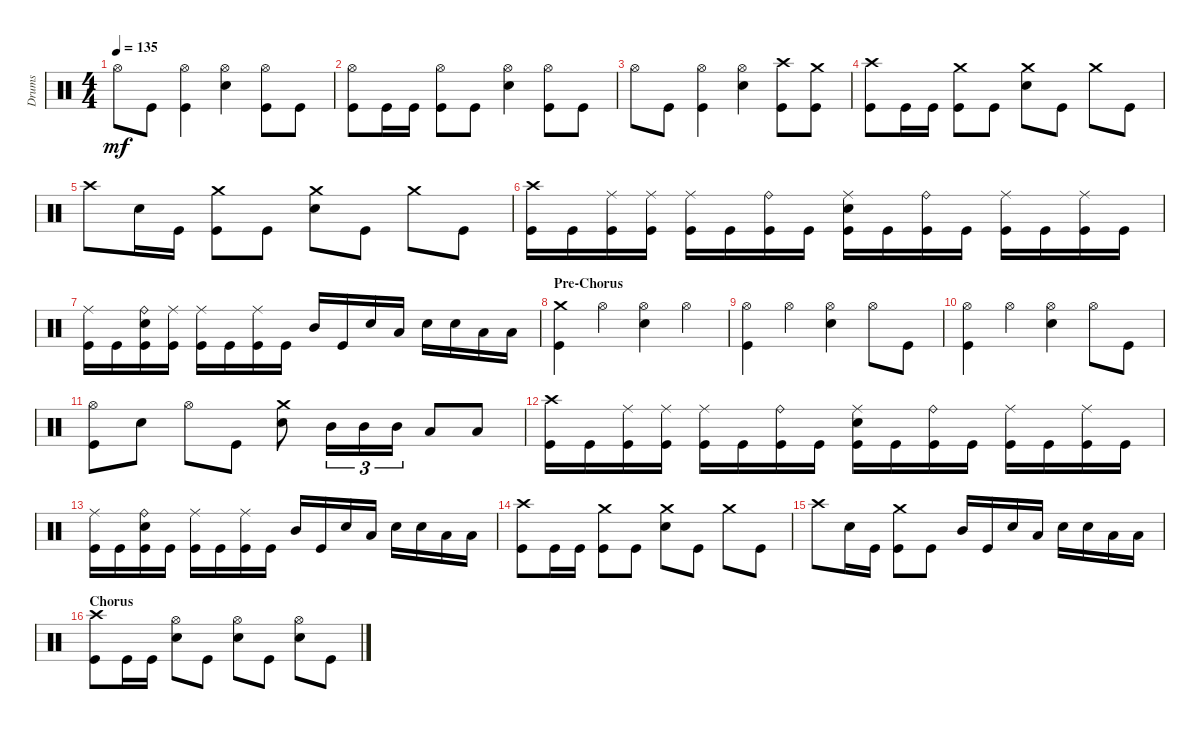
\track ("Drums" "Drums") {instrument percussion}
\staff {score}
\articulation defaults
\ts (4 4)
\tempo 135
\clef neutral
\ks aminor "Hi-Hat (open)".8{dy mf} "Kick (hit)".8
("Kick (hit)" "Hi-Hat (open)").4 ("Hi-Hat (open)" "Snare (hit) 2").4 ("Hi-Hat (open)" "Kick (hit)").8 "Kick (hit)".8 |
("Hi-Hat (open)" "Kick (hit)").8 "Kick (hit)".16 "Kick (hit)".16 ("Kick (hit)" "Hi-Hat (open)").8 "Kick (hit)".8 ("Hi-Hat (open)" "Snare (hit) 2").4 ("Hi-Hat (open)" "Kick (hit)").8 "Kick (hit)".8 |
"Hi-Hat (open)".8 "Kick (hit)".8 ("Kick (hit)" "Hi-Hat (open)").4 ("Hi-Hat (open)" "Snare (hit) 2").4 ("Kick (hit)" "Crash high (hit)").8 ("Kick (hit)" "Crash medium (hit)").8 |
("Crash high (hit)" "Kick (hit)").8 "Kick (hit)".16 "Kick (hit)".16 ("Kick (hit)" "Crash medium (hit)").8 "Kick (hit)".8 ("Snare (hit) 2" "Crash medium (hit)").8 "Kick (hit)".8 "Crash medium (hit)".8 "Kick (hit)".8 |
"Crash high (hit)".8 "Snare (hit) 2".16 "Kick (hit)".16 ("Crash medium (hit)" "Kick (hit)").8 "Kick (hit)".8 ("Crash medium (hit)" "Snare (hit) 2").8 "Kick (hit)".8 "Crash medium (hit)".8 "Kick (hit)".8 |
("Kick (hit)" "Crash high (hit)").16 "Kick (hit)".16 ("Kick (hit)" "Ride (middle)").16 ("Kick (hit)" "Ride (middle)").16 ("Ride (middle)" "Kick (hit)").16 "Kick (hit)".16 ("Kick (hit)" "Ride (bell)").16 "Kick (hit)".16 ("Ride (middle)" "Kick (hit)" "Snare (hit) 2").16 "Kick (hit)".16 ("Kick (hit)" "Ride (bell)").16 "Kick (hit)".16 ("Ride (middle)" "Kick (hit)").16 "Kick (hit)".16 ("Kick (hit)" "Ride (middle)").16 "Kick (hit)".16 |
("Ride (middle)" "Kick (hit)").16 "Kick (hit)".16 ("Snare (hit) 2" "Kick (hit)" "Ride (bell)").16 ("Ride (middle)" "Kick (hit)").16 ("Kick (hit)" "Ride (middle)").16 "Kick (hit)".16 ("Ride (middle)" "Kick (hit)").16 "Kick (hit)".16 "Mid Tom (hit)".16 "Kick (hit)".16 "Snare (hit) 2".16 "Low Tom (hit)".16 "Snare (hit) 2".16 "Snare (hit) 2".16 "Low Tom (hit)".16 "Low Tom (hit)".16 |
\section ("" "Pre-Chorus")
("Crash medium (hit)" "Kick (hit)").4 "Hi-Hat (open)".4 ("Snare (hit) 2" "Hi-Hat (open)").4 "Hi-Hat (open)".4 |
("Hi-Hat (open)" "Kick (hit)").4 "Hi-Hat (open)".4 ("Hi-Hat (open)" "Snare (hit) 2").4 "Hi-Hat (open)".8 "Kick (hit)".8 |
("Kick (hit)" "Hi-Hat (open)").4 "Hi-Hat (open)".4 ("Snare (hit) 2" "Hi-Hat (open)").4 "Hi-Hat (open)".8 "Kick (hit)".8 |
("Kick (hit)" "Hi-Hat (open)").8 "Snare (hit) 2".8 "Hi-Hat (open)".8 "Kick (hit)".8 ("Snare (hit) 2" "Crash medium (hit)").8 "Mid Tom (hit)".16{tu (3 2)} "Mid Tom (hit)".16{tu (3 2)} "Mid Tom (hit)".16{tu (3 2)} "Low Tom (hit)".8 "Low Floor Tom (hit)".8 |
("Kick (hit)" "Crash high (hit)").16 "Kick (hit)".16 ("Kick (hit)" "Ride (middle)").16 ("Kick (hit)" "Ride (middle)").16 ("Ride (middle)" "Kick (hit)").16 "Kick (hit)".16 ("Kick (hit)" "Ride (bell)").16 "Kick (hit)".16 ("Ride (middle)" "Snare (hit) 2" "Kick (hit)").16 "Kick (hit)".16 ("Kick (hit)" "Ride (bell)").16 "Kick (hit)".16 ("Ride (middle)" "Kick (hit)").16 "Kick (hit)".16 ("Kick (hit)" "Ride (middle)").16 "Kick (hit)".16 |
("Ride (middle)" "Kick (hit)").16 "Kick (hit)".16 ("Kick (hit)" "Snare (hit) 2" "Ride (bell)").16 "Kick (hit)".16 ("Ride (middle)" "Kick (hit)").16 "Kick (hit)".16 ("Ride (middle)" "Kick (hit)").16 "Kick (hit)".16 "Mid Tom (hit)".16 "Kick (hit)".16 "Snare (hit) 2".16 "Low Tom (hit)".16 "Snare (hit) 2".16 "Snare (hit) 2".16 "Low Tom (hit)".16 "Low Tom (hit)".16 |
("Crash high (hit)" "Kick (hit)").8 "Kick (hit)".16 "Kick (hit)".16 ("Kick (hit)" "Crash medium (hit)").8 "Kick (hit)".8 ("Snare (hit) 2" "Crash medium (hit)").8 "Kick (hit)".8 "Crash medium (hit)".8 "Kick (hit)".8 |
"Crash high (hit)".8 "Snare (hit) 2".16 "Kick (hit)".16 ("Kick (hit)" "Crash medium (hit)").8 "Kick (hit)".8 "Mid Tom (hit)".16 "Kick (hit)".16 "Snare (hit) 2".16 "Low Tom (hit)".16 "Snare (hit) 2".16 "Snare (hit) 2".16 "Low Tom (hit)".16 "Low Tom (hit)".16 |
\section ("" "Chorus")
("Crash high (hit)" "Kick (hit)").8 "Kick (hit)".16 "Kick (hit)".16 ("Snare (hit) 2" "Hi-Hat (open)").8 "Kick (hit)".8 ("Hi-Hat (open)" "Snare (hit) 2").8 "Kick (hit)".8 ("Snare (hit) 2" "Hi-Hat (open)").8 "Kick (hit)".8
